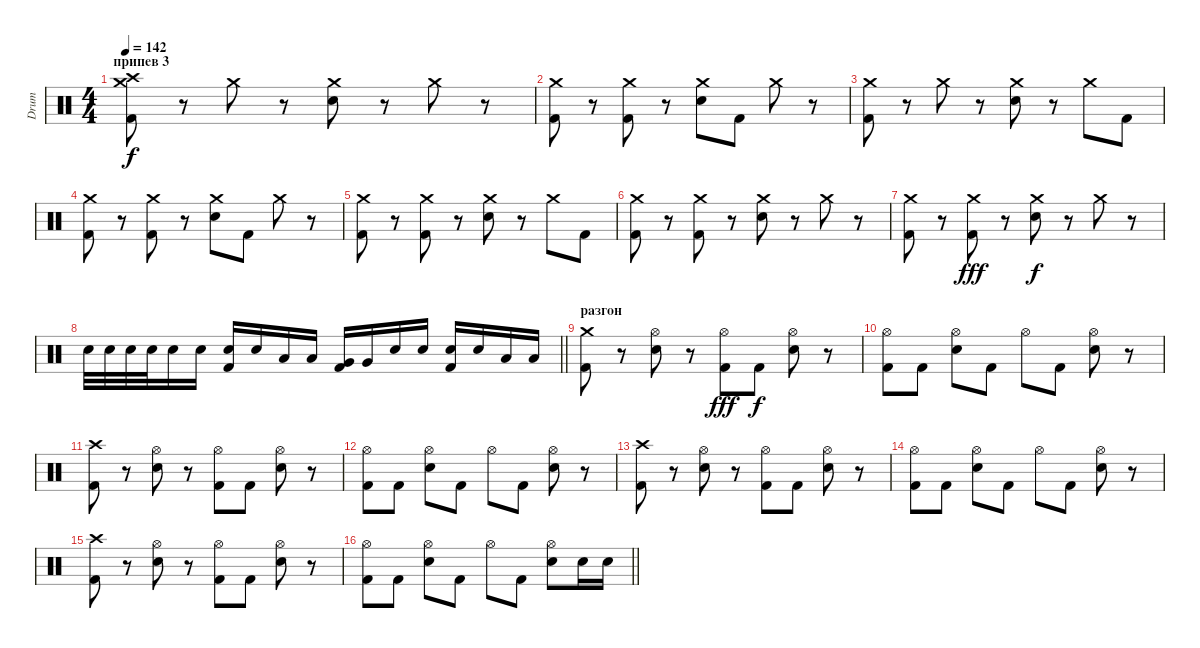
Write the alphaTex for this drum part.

\track ("Drum" "Drum") {instrument percussion}
\staff {score}
\articulation defaults
\ts (4 4)
\section ("" "припев 3")
\tempo 142
\clef neutral
\ks c
("Crash high (hit)" "Crash medium (hit)" "Kick (hit) 2").8{dy f} r.8 "Crash medium (hit)".8 r.8 ("Crash medium (hit)" "Snare (hit) 2").8 r.8 "Crash medium (hit)".8 r.8 |
("Crash medium (hit)" "Kick (hit) 2").8 r.8 ("Crash medium (hit)" "Kick (hit) 2").8 r.8 ("Crash medium (hit)" "Snare (hit) 2").8 "Kick (hit) 2".8 "Crash medium (hit)".8 r.8 |
("Crash medium (hit)" "Kick (hit) 2").8 r.8 "Crash medium (hit)".8 r.8 ("Crash medium (hit)" "Snare (hit) 2").8 r.8 "Crash medium (hit)".8 "Kick (hit) 2".8 |
("Crash medium (hit)" "Kick (hit) 2").8 r.8 ("Crash medium (hit)" "Kick (hit) 2").8 r.8 ("Crash medium (hit)" "Snare (hit) 2").8 "Kick (hit) 2".8 "Crash medium (hit)".8 r.8 |
("Crash medium (hit)" "Kick (hit) 2").8 r.8 ("Crash medium (hit)" "Kick (hit) 2").8 r.8 ("Crash medium (hit)" "Snare (hit) 2").8 r.8 "Crash medium (hit)".8 "Kick (hit) 2".8 |
("Crash medium (hit)" "Kick (hit) 2").8 r.8 ("Crash medium (hit)" "Kick (hit) 2").8 r.8 ("Crash medium (hit)" "Snare (hit) 2").8 r.8 "Crash medium (hit)".8 r.8 |
("Crash medium (hit)" "Kick (hit) 2").8 r.8 ("Crash medium (hit)" "Kick (hit) 2").8{dy fff} r.8 ("Crash medium (hit)" "Snare (hit) 2").8{dy f} r.8 "Crash medium (hit)".8 r.8 |
\barLineRight lightlight "Snare (hit) 2".32 "Snare (hit) 2".32 "Snare (hit) 2".32 "Snare (hit) 2".32 "Snare (hit) 2".16 "Snare (hit) 2".16
("Kick (hit) 2" "Snare (hit) 2").16 "Snare (hit) 2".16 "Low Tom (hit)".16 "Low Tom (hit)".16 ("Kick (hit) 2" "Very Low Tom (hit)").16 "Very Low Tom (hit)".16 "Snare (hit) 2".16 "Snare (hit) 2".16 ("Kick (hit) 2" "Snare (hit) 2").16 "Snare (hit) 2".16 "Low Floor Tom (hit)".16 "Low Floor Tom (hit)".16 |
\section ("" "разгон")
("Crash medium (hit)" "Kick (hit) 2").8 r.8 ("Hi-Hat (open)" "Snare (hit) 2").8 r.8 ("Hi-Hat (open)" "Kick (hit) 2").8{dy fff} "Kick (hit) 2".8{dy f} ("Hi-Hat (open)" "Snare (hit) 2").8 r.8 |
("Hi-Hat (open)" "Kick (hit) 2").8 "Kick (hit) 2".8 ("Hi-Hat (open)" "Snare (hit) 2").8 "Kick (hit) 2".8 "Hi-Hat (open)".8 "Kick (hit) 2".8 ("Hi-Hat (open)" "Snare (hit) 2").8 r.8 |
("Crash high (hit)" "Kick (hit) 2").8 r.8 ("Hi-Hat (open)" "Snare (hit) 2").8 r.8 ("Hi-Hat (open)" "Kick (hit) 2").8 "Kick (hit) 2".8 ("Hi-Hat (open)" "Snare (hit) 2").8 r.8 |
("Hi-Hat (open)" "Kick (hit) 2").8 "Kick (hit) 2".8 ("Hi-Hat (open)" "Snare (hit) 2").8 "Kick (hit) 2".8 "Hi-Hat (open)".8 "Kick (hit) 2".8 ("Hi-Hat (open)" "Snare (hit) 2").8 r.8 |
("Crash high (hit)" "Kick (hit) 2").8 r.8 ("Hi-Hat (open)" "Snare (hit) 2").8 r.8 ("Hi-Hat (open)" "Kick (hit) 2").8 "Kick (hit) 2".8 ("Hi-Hat (open)" "Snare (hit) 2").8 r.8 |
("Hi-Hat (open)" "Kick (hit) 2").8 "Kick (hit) 2".8 ("Hi-Hat (open)" "Snare (hit) 2").8 "Kick (hit) 2".8 "Hi-Hat (open)".8 "Kick (hit) 2".8 ("Hi-Hat (open)" "Snare (hit) 2").8 r.8 |
("Crash high (hit)" "Kick (hit) 2").8 r.8 ("Hi-Hat (open)" "Snare (hit) 2").8 r.8 ("Hi-Hat (open)" "Kick (hit) 2").8 "Kick (hit) 2".8 ("Hi-Hat (open)" "Snare (hit) 2").8 r.8 |
\barLineRight lightlight
("Hi-Hat (open)" "Kick (hit) 2").8 "Kick (hit) 2".8 ("Hi-Hat (open)" "Snare (hit) 2").8 "Kick (hit) 2".8 "Hi-Hat (open)".8 "Kick (hit) 2".8 ("Hi-Hat (open)" "Snare (hit) 2").8 "Snare (hit) 2".16 "Snare (hit) 2".16
